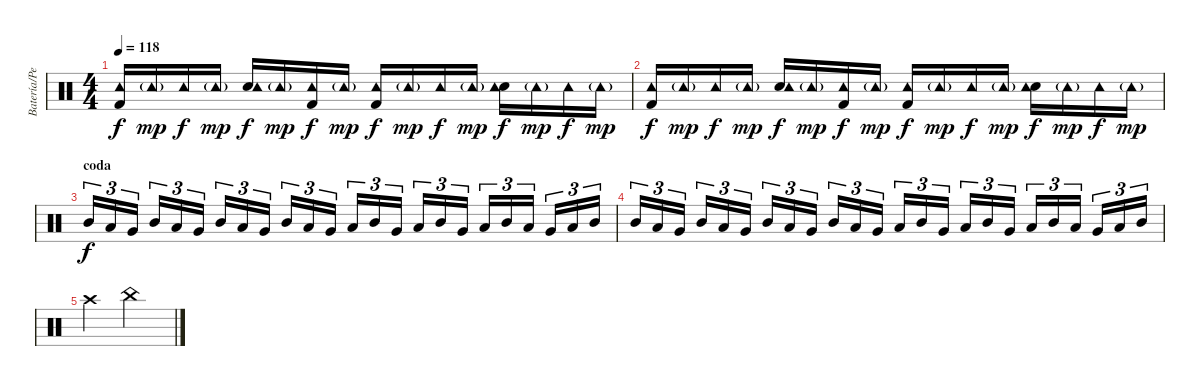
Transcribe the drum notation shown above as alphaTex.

\track ("Batería/Percusión" "Batería/Pe") {instrument percussion}
\staff {score}
\articulation defaults
\ts (4 4)
\tempo 118
\clef neutral
\ks c
("Kick (hit) 2" "Tambourine (hit)").16{dy f} "Tambourine (hit)"{g}.16{dy mp} "Tambourine (hit)".16{dy f} "Tambourine (hit)"{g}.16{dy mp} ("Electric Snare (hit)" "Tambourine (hit)").16{dy f} "Tambourine (hit)"{g}.16{dy mp} ("Kick (hit) 2" "Tambourine (hit)").16{dy f} "Tambourine (hit)"{g}.16{dy mp} ("Kick (hit) 2" "Tambourine (hit)").16{dy f} "Tambourine (hit)"{g}.16{dy mp} "Tambourine (hit)".16{dy f} "Tambourine (hit)"{g}.16{dy mp} ("Electric Snare (hit)" "Tambourine (hit)").16{dy f} "Tambourine (hit)"{g}.16{dy mp} "Tambourine (hit)".16{dy f} "Tambourine (hit)"{g}.16{dy mp} |
("Kick (hit) 2" "Tambourine (hit)").16{dy f} "Tambourine (hit)"{g}.16{dy mp} "Tambourine (hit)".16{dy f} "Tambourine (hit)"{g}.16{dy mp} ("Electric Snare (hit)" "Tambourine (hit)").16{dy f} "Tambourine (hit)"{g}.16{dy mp} ("Kick (hit) 2" "Tambourine (hit)").16{dy f} "Tambourine (hit)"{g}.16{dy mp} ("Kick (hit) 2" "Tambourine (hit)").16{dy f} "Tambourine (hit)"{g}.16{dy mp} "Tambourine (hit)".16{dy f} "Tambourine (hit)"{g}.16{dy mp} ("Electric Snare (hit)" "Tambourine (hit)").16{dy f} "Tambourine (hit)"{g}.16{dy mp} "Tambourine (hit)".16{dy f} "Tambourine (hit)"{g}.16{dy mp} |
\section ("" "coda")
"Mid Tom (hit)".16{tu (3 2) dy f} "Low Tom (hit)".16{tu (3 2)} "Very Low Tom (hit)".16{tu (3 2)} "Mid Tom (hit)".16{tu (3 2)} "Low Tom (hit)".16{tu (3 2)} "Very Low Tom (hit)".16{tu (3 2)} "Mid Tom (hit)".16{tu (3 2)} "Low Tom (hit)".16{tu (3 2)} "Very Low Tom (hit)".16{tu (3 2)} "Mid Tom (hit)".16{tu (3 2)} "Low Tom (hit)".16{tu (3 2)} "Very Low Tom (hit)".16{tu (3 2)} "Low Tom (hit)".16{tu (3 2)} "Mid Tom (hit)".16{tu (3 2)} "Very Low Tom (hit)".16{tu (3 2)} "Low Tom (hit)".16{tu (3 2)} "Mid Tom (hit)".16{tu (3 2)} "Very Low Tom (hit)".16{tu (3 2)} "Low Tom (hit)".16{tu (3 2)} "Mid Tom (hit)".16{tu (3 2)} "Low Tom (hit)".16{tu (3 2)} "Very Low Tom (hit)".16{tu (3 2)} "Low Tom (hit)".16{tu (3 2)} "Mid Tom (hit)".16{tu (3 2)} |
"Mid Tom (hit)".16{tu (3 2)} "Low Tom (hit)".16{tu (3 2)} "Very Low Tom (hit)".16{tu (3 2)} "Mid Tom (hit)".16{tu (3 2)} "Low Tom (hit)".16{tu (3 2)} "Very Low Tom (hit)".16{tu (3 2)} "Mid Tom (hit)".16{tu (3 2)} "Low Tom (hit)".16{tu (3 2)} "Very Low Tom (hit)".16{tu (3 2)} "Mid Tom (hit)".16{tu (3 2)} "Low Tom (hit)".16{tu (3 2)} "Very Low Tom (hit)".16{tu (3 2)} "Low Tom (hit)".16{tu (3 2)} "Mid Tom (hit)".16{tu (3 2)} "Very Low Tom (hit)".16{tu (3 2)} "Low Tom (hit)".16{tu (3 2)} "Mid Tom (hit)".16{tu (3 2)} "Very Low Tom (hit)".16{tu (3 2)} "Low Tom (hit)".16{tu (3 2)} "Mid Tom (hit)".16{tu (3 2)} "Low Tom (hit)".16{tu (3 2)} "Very Low Tom (hit)".16{tu (3 2)} "Low Tom (hit)".16{tu (3 2)} "Mid Tom (hit)".16{tu (3 2)} |
"Crash high (hit)".2 "China (hit)".2
